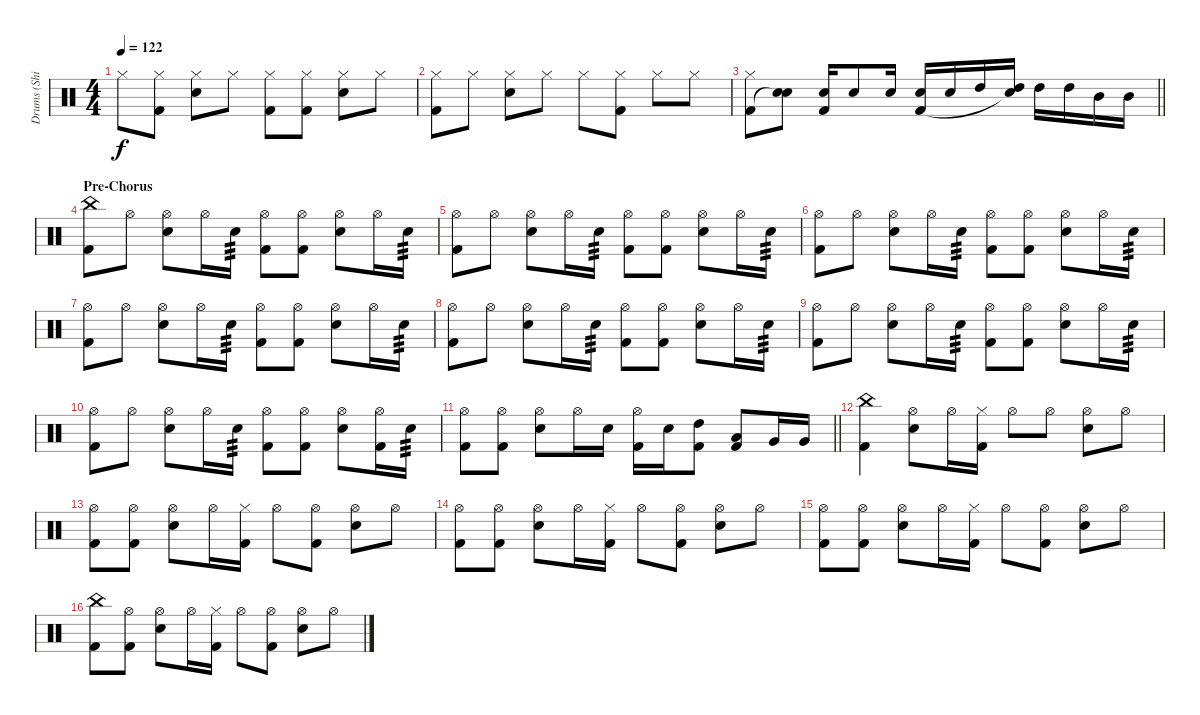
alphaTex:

\track ("Drums (Shinya)" "Drums (Shi") {instrument percussion}
\staff {score}
\articulation defaults
\ts (4 4)
\tempo 122
\clef neutral
\ks c "Hi-Hat (closed)".8{dy f}
("Hi-Hat (closed)" "Kick (hit) 2").8 ("Snare (hit) 2" "Hi-Hat (closed)").8 "Hi-Hat (closed)".8 ("Hi-Hat (closed)" "Kick (hit) 2").8 ("Hi-Hat (closed)" "Kick (hit) 2").8 ("Snare (hit) 2" "Hi-Hat (closed)").8 "Hi-Hat (closed)".8 |
("Hi-Hat (closed)" "Kick (hit) 2").8 "Hi-Hat (closed)".8 ("Snare (hit) 2" "Hi-Hat (closed)").8 "Hi-Hat (closed)".8 "Hi-Hat (closed)".8 ("Hi-Hat (closed)" "Kick (hit) 2").8 "Hi-Hat (closed)".8 "Hi-Hat (closed)".8 |
\barLineRight lightlight
("Hi-Hat (closed)" "Kick (hit) 2").8 ("Snare (hit) 2" "Snare (hit)"{t}).8 ("Snare (hit) 2" "Kick (hit) 2").16 "Snare (hit) 2".8 "Snare (hit) 2".16 ("Snare (hit) 2" "Kick (hit) 2").16 "Snare (hit) 2".16 "High Tom (hit)".16 ("High Tom (hit)" "Snare (hit)"{t}).16 "High Tom (hit)".16 "High Tom (hit)".16 "Mid Tom (hit)".16 "Mid Tom (hit)".16 |
\section ("" "Pre-Chorus")
("China (hit)" "Kick (hit) 2").8 "Hi-Hat (open)".8 ("Snare (hit) 2" "Hi-Hat (open)").8 "Hi-Hat (open)".16 "Snare (hit) 2".16{tp 3} ("Hi-Hat (open)" "Kick (hit) 2").8 ("Hi-Hat (open)" "Kick (hit) 2").8 ("Snare (hit) 2" "Hi-Hat (open)").8 "Hi-Hat (open)".16 "Snare (hit) 2".16{tp 3} |
("Hi-Hat (open)" "Kick (hit) 2").8 "Hi-Hat (open)".8 ("Snare (hit) 2" "Hi-Hat (open)").8 "Hi-Hat (open)".16 "Snare (hit) 2".16{tp 3} ("Hi-Hat (open)" "Kick (hit) 2").8 ("Hi-Hat (open)" "Kick (hit) 2").8 ("Snare (hit) 2" "Hi-Hat (open)").8 "Hi-Hat (open)".16 "Snare (hit) 2".16{tp 3} |
("Hi-Hat (open)" "Kick (hit) 2").8 "Hi-Hat (open)".8 ("Snare (hit) 2" "Hi-Hat (open)").8 "Hi-Hat (open)".16 "Snare (hit) 2".16{tp 3} ("Hi-Hat (open)" "Kick (hit) 2").8 ("Hi-Hat (open)" "Kick (hit) 2").8 ("Snare (hit) 2" "Hi-Hat (open)").8 "Hi-Hat (open)".16 "Snare (hit) 2".16{tp 3} |
("Hi-Hat (open)" "Kick (hit) 2").8 "Hi-Hat (open)".8 ("Snare (hit) 2" "Hi-Hat (open)").8 "Hi-Hat (open)".16 "Snare (hit) 2".16{tp 3} ("Hi-Hat (open)" "Kick (hit) 2").8 ("Hi-Hat (open)" "Kick (hit) 2").8 ("Snare (hit) 2" "Hi-Hat (open)").8 "Hi-Hat (open)".16 "Snare (hit) 2".16{tp 3} |
("Hi-Hat (open)" "Kick (hit) 2").8 "Hi-Hat (open)".8 ("Snare (hit) 2" "Hi-Hat (open)").8 "Hi-Hat (open)".16 "Snare (hit) 2".16{tp 3} ("Hi-Hat (open)" "Kick (hit) 2").8 ("Hi-Hat (open)" "Kick (hit) 2").8 ("Snare (hit) 2" "Hi-Hat (open)").8 "Hi-Hat (open)".16 "Snare (hit) 2".16{tp 3} |
("Hi-Hat (open)" "Kick (hit) 2").8 "Hi-Hat (open)".8 ("Snare (hit) 2" "Hi-Hat (open)").8 "Hi-Hat (open)".16 "Snare (hit) 2".16{tp 3} ("Hi-Hat (open)" "Kick (hit) 2").8 ("Hi-Hat (open)" "Kick (hit) 2").8 ("Snare (hit) 2" "Hi-Hat (open)").8 "Hi-Hat (open)".16 "Snare (hit) 2".16{tp 3} |
("Hi-Hat (open)" "Kick (hit) 2").8 "Hi-Hat (open)".8 ("Snare (hit) 2" "Hi-Hat (open)").8 "Hi-Hat (open)".16 "Snare (hit) 2".16{tp 3} ("Hi-Hat (open)" "Kick (hit) 2").8 ("Hi-Hat (open)" "Kick (hit) 2").8 ("Snare (hit) 2" "Hi-Hat (open)").8 ("Hi-Hat (open)" "Kick (hit) 2").16 "Snare (hit) 2".16{tp 3} |
\barLineRight lightlight
("Hi-Hat (open)" "Kick (hit) 2").8 ("Hi-Hat (open)" "Kick (hit) 2").8 ("Snare (hit) 2" "Hi-Hat (open)").8 "Hi-Hat (open)".16 "Snare (hit) 2".16 ("Hi-Hat (open)" "Kick (hit) 2").16 "Snare (hit) 2".16 ("High Tom (hit)" "Kick (hit) 2").8 ("Low Tom (hit)" "Kick (hit) 2").8 "Very Low Tom (hit)".16 "Very Low Tom (hit)".16 |
("China (hit)" "Kick (hit) 2").4 ("Snare (hit) 2" "Hi-Hat (open)").8 "Hi-Hat (open)".16 ("Hi-Hat (closed)" "Kick (hit) 2").16 "Hi-Hat (open)".8 "Hi-Hat (open)".8 ("Snare (hit) 2" "Hi-Hat (open)").8 "Hi-Hat (open)".8 |
("Hi-Hat (open)" "Kick (hit) 2").8 ("Hi-Hat (open)" "Kick (hit) 2").8 ("Snare (hit) 2" "Hi-Hat (open)").8 "Hi-Hat (open)".16 ("Hi-Hat (closed)" "Kick (hit) 2").16 "Hi-Hat (open)".8 ("Hi-Hat (open)" "Kick (hit) 2").8 ("Snare (hit) 2" "Hi-Hat (open)").8 "Hi-Hat (open)".8 |
("Hi-Hat (open)" "Kick (hit) 2").8 ("Hi-Hat (open)" "Kick (hit) 2").8 ("Snare (hit) 2" "Hi-Hat (open)").8 "Hi-Hat (open)".16 ("Hi-Hat (closed)" "Kick (hit) 2").16 "Hi-Hat (open)".8 ("Hi-Hat (open)" "Kick (hit) 2").8 ("Snare (hit) 2" "Hi-Hat (open)").8 "Hi-Hat (open)".8 |
("Hi-Hat (open)" "Kick (hit) 2").8 ("Hi-Hat (open)" "Kick (hit) 2").8 ("Snare (hit) 2" "Hi-Hat (open)").8 "Hi-Hat (open)".16 ("Hi-Hat (closed)" "Kick (hit) 2").16 "Hi-Hat (open)".8 ("Hi-Hat (open)" "Kick (hit) 2").8 ("Snare (hit) 2" "Hi-Hat (open)").8 "Hi-Hat (open)".8 |
("China (hit)" "Kick (hit) 2").8 ("Hi-Hat (open)" "Kick (hit) 2").8 ("Snare (hit) 2" "Hi-Hat (open)").8 "Hi-Hat (open)".16 ("Hi-Hat (closed)" "Kick (hit) 2").16 "Hi-Hat (open)".8 ("Hi-Hat (open)" "Kick (hit) 2").8 ("Snare (hit) 2" "Hi-Hat (open)").8 "Hi-Hat (open)".8
